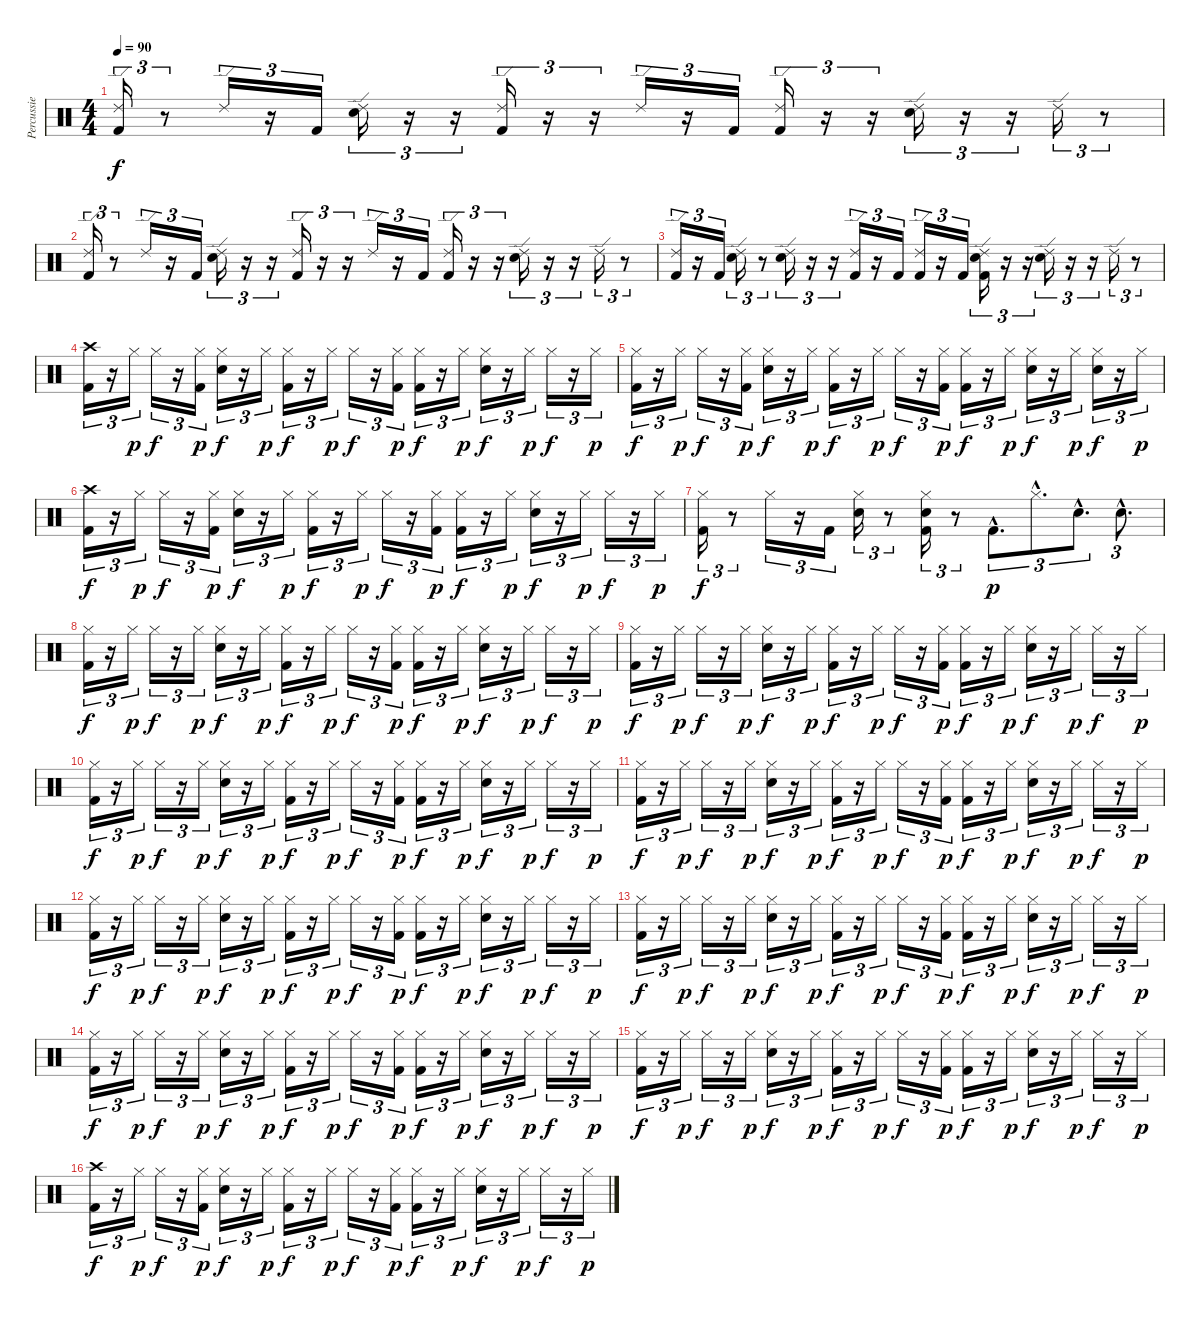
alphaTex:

\track ("Percussie" "Percussie") {instrument percussion}
\staff {score}
\articulation defaults
\ts (4 4)
\tempo 90
\clef neutral
\ks c
("Ride (edge) 2" "Kick (hit) 2").16{tu (3 2) dy f} r.8{tu (3 2)} "Ride (edge) 2".16{tu (3 2)} r.16{tu (3 2)} "Kick (hit) 2".16{tu (3 2)} ("Ride (edge) 2" "Electric Snare (hit)").16{tu (3 2)} r.16{tu (3 2)} r.16{tu (3 2)} ("Ride (edge) 2" "Kick (hit) 2").16{tu (3 2)} r.16{tu (3 2)} r.16{tu (3 2)} "Ride (edge) 2".16{tu (3 2)} r.16{tu (3 2)} "Kick (hit) 2".16{tu (3 2)} ("Ride (edge) 2" "Kick (hit) 2").16{tu (3 2)} r.16{tu (3 2)} r.16{tu (3 2)} ("Ride (edge) 2" "Electric Snare (hit)").16{tu (3 2)} r.16{tu (3 2)} r.16{tu (3 2)} "Ride (edge) 2".16{tu (3 2)} r.8{tu (3 2)} |
("Ride (edge) 2" "Kick (hit) 2").16{tu (3 2)} r.8{tu (3 2)} "Ride (edge) 2".16{tu (3 2)} r.16{tu (3 2)} "Kick (hit) 2".16{tu (3 2)} ("Ride (edge) 2" "Electric Snare (hit)").16{tu (3 2)} r.16{tu (3 2)} r.16{tu (3 2)} ("Ride (edge) 2" "Kick (hit) 2").16{tu (3 2)} r.16{tu (3 2)} r.16{tu (3 2)} "Ride (edge) 2".16{tu (3 2)} r.16{tu (3 2)} "Kick (hit) 2".16{tu (3 2)} ("Ride (edge) 2" "Kick (hit) 2").16{tu (3 2)} r.16{tu (3 2)} r.16{tu (3 2)} ("Ride (edge) 2" "Electric Snare (hit)").16{tu (3 2)} r.16{tu (3 2)} r.16{tu (3 2)} "Ride (edge) 2".16{tu (3 2)} r.8{tu (3 2)} |
("Ride (edge) 2" "Kick (hit) 2").16{tu (3 2)} r.16{tu (3 2)} "Kick (hit) 2".16{tu (3 2)} ("Ride (edge) 2" "Electric Snare (hit)").16{tu (3 2)} r.8{tu (3 2)} ("Ride (edge) 2" "Electric Snare (hit)").16{tu (3 2)} r.16{tu (3 2)} r.16{tu (3 2)} ("Ride (edge) 2" "Kick (hit) 2").16{tu (3 2)} r.16{tu (3 2)} "Kick (hit) 2".16{tu (3 2)} ("Ride (edge) 2" "Kick (hit) 2").16{tu (3 2)} r.16{tu (3 2)} "Kick (hit) 2".16{tu (3 2)} ("Ride (edge) 2" "Electric Snare (hit)" "Kick (hit) 2").16{tu (3 2)} r.16{tu (3 2)} r.16{tu (3 2)} ("Ride (edge) 2" "Electric Snare (hit)").16{tu (3 2)} r.16{tu (3 2)} r.16{tu (3 2)} "Ride (edge) 2".16{tu (3 2)} r.8{tu (3 2)} |
("Crash high (hit)" "Kick (hit) 2").16{tu (3 2)} r.16{tu (3 2)} "Hi-Hat (closed)".16{tu (3 2) dy p} "Hi-Hat (closed)".16{tu (3 2) dy f} r.16{tu (3 2)} ("Hi-Hat (closed)" "Kick (hit) 2").16{tu (3 2) dy p} ("Hi-Hat (closed)" "Electric Snare (hit)").16{tu (3 2) dy f} r.16{tu (3 2)} "Hi-Hat (closed)".16{tu (3 2) dy p} ("Hi-Hat (closed)" "Kick (hit) 2").16{tu (3 2) dy f} r.16{tu (3 2)} "Hi-Hat (closed)".16{tu (3 2) dy p} "Hi-Hat (closed)".16{tu (3 2) dy f} r.16{tu (3 2)} ("Hi-Hat (closed)" "Kick (hit) 2").16{tu (3 2) dy p} ("Hi-Hat (closed)" "Kick (hit) 2").16{tu (3 2) dy f} r.16{tu (3 2)} "Hi-Hat (closed)".16{tu (3 2) dy p} ("Hi-Hat (closed)" "Electric Snare (hit)").16{tu (3 2) dy f} r.16{tu (3 2)} "Hi-Hat (closed)".16{tu (3 2) dy p} "Hi-Hat (closed)".16{tu (3 2) dy f} r.16{tu (3 2)} "Hi-Hat (closed)".16{tu (3 2) dy p} |
("Hi-Hat (closed)" "Kick (hit) 2").16{tu (3 2) dy f} r.16{tu (3 2)} "Hi-Hat (closed)".16{tu (3 2) dy p} "Hi-Hat (closed)".16{tu (3 2) dy f} r.16{tu (3 2)} ("Hi-Hat (closed)" "Kick (hit) 2").16{tu (3 2) dy p} ("Hi-Hat (closed)" "Electric Snare (hit)").16{tu (3 2) dy f} r.16{tu (3 2)} "Hi-Hat (closed)".16{tu (3 2) dy p} ("Hi-Hat (closed)" "Kick (hit) 2").16{tu (3 2) dy f} r.16{tu (3 2)} "Hi-Hat (closed)".16{tu (3 2) dy p} "Hi-Hat (closed)".16{tu (3 2) dy f} r.16{tu (3 2)} ("Hi-Hat (closed)" "Kick (hit) 2").16{tu (3 2) dy p} ("Hi-Hat (closed)" "Kick (hit) 2").16{tu (3 2) dy f} r.16{tu (3 2)} "Hi-Hat (closed)".16{tu (3 2) dy p} ("Hi-Hat (closed)" "Electric Snare (hit)").16{tu (3 2) dy f} r.16{tu (3 2)} "Hi-Hat (closed)".16{tu (3 2) dy p} ("Hi-Hat (closed)" "Electric Snare (hit)").16{tu (3 2) dy f} r.16{tu (3 2)} "Hi-Hat (closed)".16{tu (3 2) dy p} |
("Crash high (hit)" "Kick (hit) 2").16{tu (3 2) dy f} r.16{tu (3 2)} "Hi-Hat (closed)".16{tu (3 2) dy p} "Hi-Hat (closed)".16{tu (3 2) dy f} r.16{tu (3 2)} ("Hi-Hat (closed)" "Kick (hit) 2").16{tu (3 2) dy p} ("Hi-Hat (closed)" "Electric Snare (hit)").16{tu (3 2) dy f} r.16{tu (3 2)} "Hi-Hat (closed)".16{tu (3 2) dy p} ("Hi-Hat (closed)" "Kick (hit) 2").16{tu (3 2) dy f} r.16{tu (3 2)} "Hi-Hat (closed)".16{tu (3 2) dy p} "Hi-Hat (closed)".16{tu (3 2) dy f} r.16{tu (3 2)} ("Hi-Hat (closed)" "Kick (hit) 2").16{tu (3 2) dy p} ("Hi-Hat (closed)" "Kick (hit) 2").16{tu (3 2) dy f} r.16{tu (3 2)} "Hi-Hat (closed)".16{tu (3 2) dy p} ("Hi-Hat (closed)" "Electric Snare (hit)").16{tu (3 2) dy f} r.16{tu (3 2)} "Hi-Hat (closed)".16{tu (3 2) dy p} "Hi-Hat (closed)".16{tu (3 2) dy f} r.16{tu (3 2)} "Hi-Hat (closed)".16{tu (3 2) dy p} |
("Hi-Hat (closed)" "Kick (hit) 2").16{tu (3 2) dy f} r.8{tu (3 2)} "Hi-Hat (closed)".16{tu (3 2)} r.16{tu (3 2)} "Kick (hit) 2".16{tu (3 2)} ("Hi-Hat (closed)" "Electric Snare (hit)").16{tu (3 2)} r.8{tu (3 2)} ("Hi-Hat (closed)" "Electric Snare (hit)" "Kick (hit) 2").16{tu (3 2)} r.8{tu (3 2)} "Kick (hit) 2"{hac}.8{d tu (3 2) dy p} "Hi-Hat (closed)"{hac}.8{d tu (3 2)} "Electric Snare (hit)"{hac}.8{d tu (3 2)} "Electric Snare (hit)"{hac}.8{d tu (3 2)} |
("Hi-Hat (closed)" "Kick (hit) 2").16{tu (3 2) dy f} r.16{tu (3 2)} "Hi-Hat (closed)".16{tu (3 2) dy p} "Hi-Hat (closed)".16{tu (3 2) dy f} r.16{tu (3 2)} "Hi-Hat (closed)".16{tu (3 2) dy p} ("Hi-Hat (closed)" "Electric Snare (hit)").16{tu (3 2) dy f} r.16{tu (3 2)} "Hi-Hat (closed)".16{tu (3 2) dy p} ("Hi-Hat (closed)" "Kick (hit) 2").16{tu (3 2) dy f} r.16{tu (3 2)} "Hi-Hat (closed)".16{tu (3 2) dy p} "Hi-Hat (closed)".16{tu (3 2) dy f} r.16{tu (3 2)} ("Hi-Hat (closed)" "Kick (hit) 2").16{tu (3 2) dy p} ("Hi-Hat (closed)" "Kick (hit) 2").16{tu (3 2) dy f} r.16{tu (3 2)} "Hi-Hat (closed)".16{tu (3 2) dy p} ("Hi-Hat (closed)" "Electric Snare (hit)").16{tu (3 2) dy f} r.16{tu (3 2)} "Hi-Hat (closed)".16{tu (3 2) dy p} "Hi-Hat (closed)".16{tu (3 2) dy f} r.16{tu (3 2)} "Hi-Hat (closed)".16{tu (3 2) dy p} |
("Hi-Hat (closed)" "Kick (hit) 2").16{tu (3 2) dy f} r.16{tu (3 2)} "Hi-Hat (closed)".16{tu (3 2) dy p} "Hi-Hat (closed)".16{tu (3 2) dy f} r.16{tu (3 2)} "Hi-Hat (closed)".16{tu (3 2) dy p} ("Hi-Hat (closed)" "Electric Snare (hit)").16{tu (3 2) dy f} r.16{tu (3 2)} "Hi-Hat (closed)".16{tu (3 2) dy p} ("Hi-Hat (closed)" "Kick (hit) 2").16{tu (3 2) dy f} r.16{tu (3 2)} "Hi-Hat (closed)".16{tu (3 2) dy p} "Hi-Hat (closed)".16{tu (3 2) dy f} r.16{tu (3 2)} ("Hi-Hat (closed)" "Kick (hit) 2").16{tu (3 2) dy p} ("Hi-Hat (closed)" "Kick (hit) 2").16{tu (3 2) dy f} r.16{tu (3 2)} "Hi-Hat (closed)".16{tu (3 2) dy p} ("Hi-Hat (closed)" "Electric Snare (hit)").16{tu (3 2) dy f} r.16{tu (3 2)} "Hi-Hat (closed)".16{tu (3 2) dy p} "Hi-Hat (closed)".16{tu (3 2) dy f} r.16{tu (3 2)} "Hi-Hat (closed)".16{tu (3 2) dy p} |
("Hi-Hat (closed)" "Kick (hit) 2").16{tu (3 2) dy f} r.16{tu (3 2)} "Hi-Hat (closed)".16{tu (3 2) dy p} "Hi-Hat (closed)".16{tu (3 2) dy f} r.16{tu (3 2)} "Hi-Hat (closed)".16{tu (3 2) dy p} ("Hi-Hat (closed)" "Electric Snare (hit)").16{tu (3 2) dy f} r.16{tu (3 2)} "Hi-Hat (closed)".16{tu (3 2) dy p} ("Hi-Hat (closed)" "Kick (hit) 2").16{tu (3 2) dy f} r.16{tu (3 2)} "Hi-Hat (closed)".16{tu (3 2) dy p} "Hi-Hat (closed)".16{tu (3 2) dy f} r.16{tu (3 2)} ("Hi-Hat (closed)" "Kick (hit) 2").16{tu (3 2) dy p} ("Hi-Hat (closed)" "Kick (hit) 2").16{tu (3 2) dy f} r.16{tu (3 2)} "Hi-Hat (closed)".16{tu (3 2) dy p} ("Hi-Hat (closed)" "Electric Snare (hit)").16{tu (3 2) dy f} r.16{tu (3 2)} "Hi-Hat (closed)".16{tu (3 2) dy p} "Hi-Hat (closed)".16{tu (3 2) dy f} r.16{tu (3 2)} "Hi-Hat (closed)".16{tu (3 2) dy p} |
("Hi-Hat (closed)" "Kick (hit) 2").16{tu (3 2) dy f} r.16{tu (3 2)} "Hi-Hat (closed)".16{tu (3 2) dy p} "Hi-Hat (closed)".16{tu (3 2) dy f} r.16{tu (3 2)} "Hi-Hat (closed)".16{tu (3 2) dy p} ("Hi-Hat (closed)" "Electric Snare (hit)").16{tu (3 2) dy f} r.16{tu (3 2)} "Hi-Hat (closed)".16{tu (3 2) dy p} ("Hi-Hat (closed)" "Kick (hit) 2").16{tu (3 2) dy f} r.16{tu (3 2)} "Hi-Hat (closed)".16{tu (3 2) dy p} "Hi-Hat (closed)".16{tu (3 2) dy f} r.16{tu (3 2)} ("Hi-Hat (closed)" "Kick (hit) 2").16{tu (3 2) dy p} ("Hi-Hat (closed)" "Kick (hit) 2").16{tu (3 2) dy f} r.16{tu (3 2)} "Hi-Hat (closed)".16{tu (3 2) dy p} ("Hi-Hat (closed)" "Electric Snare (hit)").16{tu (3 2) dy f} r.16{tu (3 2)} "Hi-Hat (closed)".16{tu (3 2) dy p} "Hi-Hat (closed)".16{tu (3 2) dy f} r.16{tu (3 2)} "Hi-Hat (closed)".16{tu (3 2) dy p} |
("Hi-Hat (closed)" "Kick (hit) 2").16{tu (3 2) dy f} r.16{tu (3 2)} "Hi-Hat (closed)".16{tu (3 2) dy p} "Hi-Hat (closed)".16{tu (3 2) dy f} r.16{tu (3 2)} "Hi-Hat (closed)".16{tu (3 2) dy p} ("Hi-Hat (closed)" "Electric Snare (hit)").16{tu (3 2) dy f} r.16{tu (3 2)} "Hi-Hat (closed)".16{tu (3 2) dy p} ("Hi-Hat (closed)" "Kick (hit) 2").16{tu (3 2) dy f} r.16{tu (3 2)} "Hi-Hat (closed)".16{tu (3 2) dy p} "Hi-Hat (closed)".16{tu (3 2) dy f} r.16{tu (3 2)} ("Hi-Hat (closed)" "Kick (hit) 2").16{tu (3 2) dy p} ("Hi-Hat (closed)" "Kick (hit) 2").16{tu (3 2) dy f} r.16{tu (3 2)} "Hi-Hat (closed)".16{tu (3 2) dy p} ("Hi-Hat (closed)" "Electric Snare (hit)").16{tu (3 2) dy f} r.16{tu (3 2)} "Hi-Hat (closed)".16{tu (3 2) dy p} "Hi-Hat (closed)".16{tu (3 2) dy f} r.16{tu (3 2)} "Hi-Hat (closed)".16{tu (3 2) dy p} |
("Hi-Hat (closed)" "Kick (hit) 2").16{tu (3 2) dy f} r.16{tu (3 2)} "Hi-Hat (closed)".16{tu (3 2) dy p} "Hi-Hat (closed)".16{tu (3 2) dy f} r.16{tu (3 2)} "Hi-Hat (closed)".16{tu (3 2) dy p} ("Hi-Hat (closed)" "Electric Snare (hit)").16{tu (3 2) dy f} r.16{tu (3 2)} "Hi-Hat (closed)".16{tu (3 2) dy p} ("Hi-Hat (closed)" "Kick (hit) 2").16{tu (3 2) dy f} r.16{tu (3 2)} "Hi-Hat (closed)".16{tu (3 2) dy p} "Hi-Hat (closed)".16{tu (3 2) dy f} r.16{tu (3 2)} ("Hi-Hat (closed)" "Kick (hit) 2").16{tu (3 2) dy p} ("Hi-Hat (closed)" "Kick (hit) 2").16{tu (3 2) dy f} r.16{tu (3 2)} "Hi-Hat (closed)".16{tu (3 2) dy p} ("Hi-Hat (closed)" "Electric Snare (hit)").16{tu (3 2) dy f} r.16{tu (3 2)} "Hi-Hat (closed)".16{tu (3 2) dy p} "Hi-Hat (closed)".16{tu (3 2) dy f} r.16{tu (3 2)} "Hi-Hat (closed)".16{tu (3 2) dy p} |
("Hi-Hat (closed)" "Kick (hit) 2").16{tu (3 2) dy f} r.16{tu (3 2)} "Hi-Hat (closed)".16{tu (3 2) dy p} "Hi-Hat (closed)".16{tu (3 2) dy f} r.16{tu (3 2)} "Hi-Hat (closed)".16{tu (3 2) dy p} ("Hi-Hat (closed)" "Electric Snare (hit)").16{tu (3 2) dy f} r.16{tu (3 2)} "Hi-Hat (closed)".16{tu (3 2) dy p} ("Hi-Hat (closed)" "Kick (hit) 2").16{tu (3 2) dy f} r.16{tu (3 2)} "Hi-Hat (closed)".16{tu (3 2) dy p} "Hi-Hat (closed)".16{tu (3 2) dy f} r.16{tu (3 2)} ("Hi-Hat (closed)" "Kick (hit) 2").16{tu (3 2) dy p} ("Hi-Hat (closed)" "Kick (hit) 2").16{tu (3 2) dy f} r.16{tu (3 2)} "Hi-Hat (closed)".16{tu (3 2) dy p} ("Hi-Hat (closed)" "Electric Snare (hit)").16{tu (3 2) dy f} r.16{tu (3 2)} "Hi-Hat (closed)".16{tu (3 2) dy p} "Hi-Hat (closed)".16{tu (3 2) dy f} r.16{tu (3 2)} "Hi-Hat (closed)".16{tu (3 2) dy p} |
("Hi-Hat (closed)" "Kick (hit) 2").16{tu (3 2) dy f} r.16{tu (3 2)} "Hi-Hat (closed)".16{tu (3 2) dy p} "Hi-Hat (closed)".16{tu (3 2) dy f} r.16{tu (3 2)} "Hi-Hat (closed)".16{tu (3 2) dy p} ("Hi-Hat (closed)" "Electric Snare (hit)").16{tu (3 2) dy f} r.16{tu (3 2)} "Hi-Hat (closed)".16{tu (3 2) dy p} ("Hi-Hat (closed)" "Kick (hit) 2").16{tu (3 2) dy f} r.16{tu (3 2)} "Hi-Hat (closed)".16{tu (3 2) dy p} "Hi-Hat (closed)".16{tu (3 2) dy f} r.16{tu (3 2)} ("Hi-Hat (closed)" "Kick (hit) 2").16{tu (3 2) dy p} ("Hi-Hat (closed)" "Kick (hit) 2").16{tu (3 2) dy f} r.16{tu (3 2)} "Hi-Hat (closed)".16{tu (3 2) dy p} ("Hi-Hat (closed)" "Electric Snare (hit)").16{tu (3 2) dy f} r.16{tu (3 2)} "Hi-Hat (closed)".16{tu (3 2) dy p} "Hi-Hat (closed)".16{tu (3 2) dy f} r.16{tu (3 2)} "Hi-Hat (closed)".16{tu (3 2) dy p} |
("Crash high (hit)" "Kick (hit) 2").16{tu (3 2) dy f} r.16{tu (3 2)} "Hi-Hat (closed)".16{tu (3 2) dy p} "Hi-Hat (closed)".16{tu (3 2) dy f} r.16{tu (3 2)} ("Hi-Hat (closed)" "Kick (hit) 2").16{tu (3 2) dy p} ("Hi-Hat (closed)" "Electric Snare (hit)").16{tu (3 2) dy f} r.16{tu (3 2)} "Hi-Hat (closed)".16{tu (3 2) dy p} ("Hi-Hat (closed)" "Kick (hit) 2").16{tu (3 2) dy f} r.16{tu (3 2)} "Hi-Hat (closed)".16{tu (3 2) dy p} "Hi-Hat (closed)".16{tu (3 2) dy f} r.16{tu (3 2)} ("Hi-Hat (closed)" "Kick (hit) 2").16{tu (3 2) dy p} ("Hi-Hat (closed)" "Kick (hit) 2").16{tu (3 2) dy f} r.16{tu (3 2)} "Hi-Hat (closed)".16{tu (3 2) dy p} ("Hi-Hat (closed)" "Electric Snare (hit)").16{tu (3 2) dy f} r.16{tu (3 2)} "Hi-Hat (closed)".16{tu (3 2) dy p} "Hi-Hat (closed)".16{tu (3 2) dy f} r.16{tu (3 2)} "Hi-Hat (closed)".16{tu (3 2) dy p}
